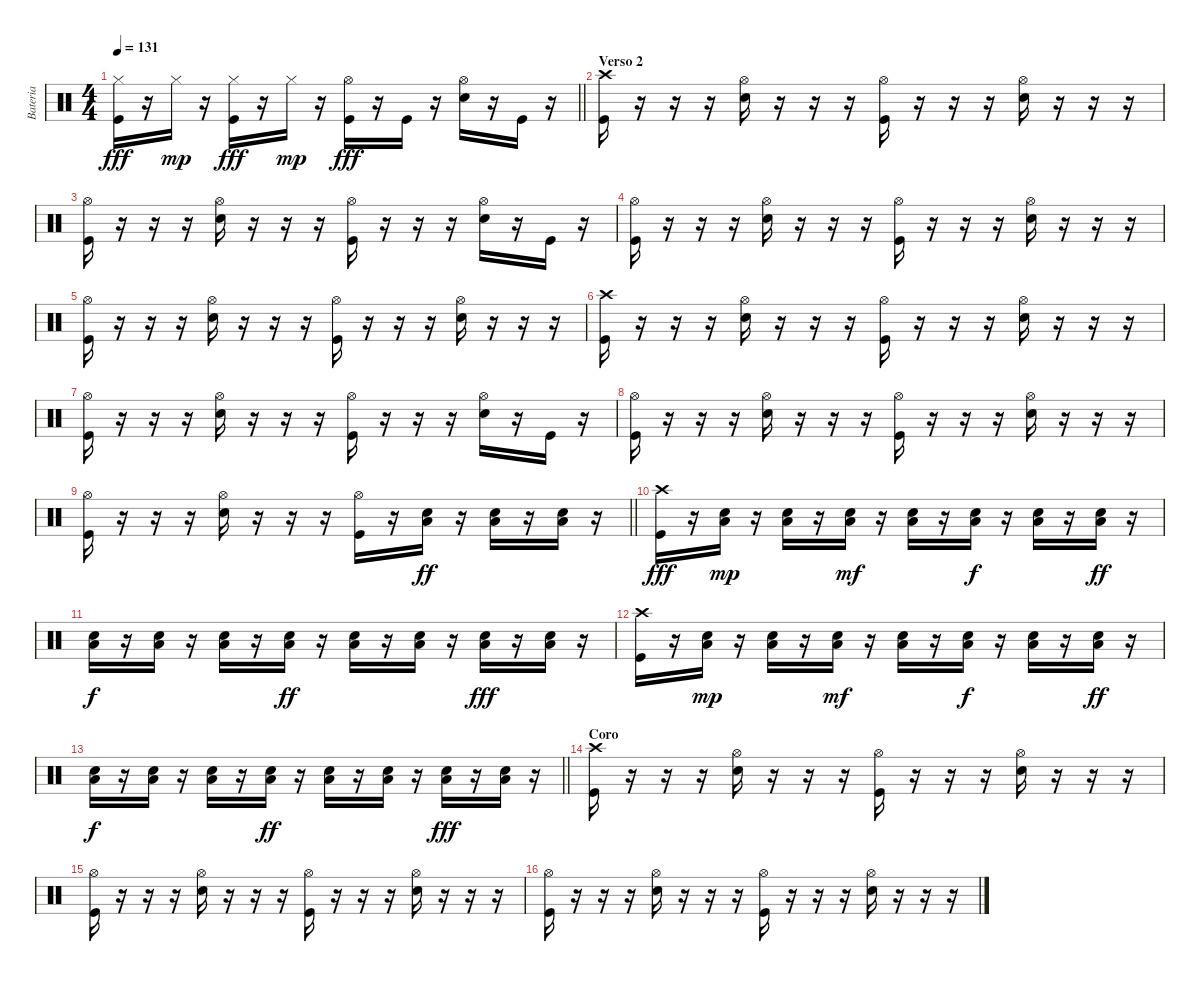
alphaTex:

\track ("Bateria" "Bateria") {instrument percussion}
\staff {score}
\articulation defaults
\ts (4 4)
\tempo 131
\clef neutral
\barLineRight lightlight
\ks c
("Hi-Hat (closed)" "Kick (hit)").16{dy fff} r.16 "Hi-Hat (closed)".16{dy mp} r.16 ("Hi-Hat (closed)" "Kick (hit)").16{dy fff} r.16 "Hi-Hat (closed)".16{dy mp} r.16 ("Hi-Hat (open)" "Kick (hit)").16{dy fff} r.16 "Kick (hit)".16 r.16 ("Hi-Hat (open)" "Electric Snare (hit)").16 r.16 "Kick (hit)".16 r.16 |
\section ("" "Verso 2")
("Crash high (hit)" "Kick (hit)").16 r.16 r.16 r.16 ("Hi-Hat (open)" "Electric Snare (hit)").16 r.16 r.16 r.16 ("Hi-Hat (open)" "Kick (hit)").16 r.16 r.16 r.16 ("Hi-Hat (open)" "Electric Snare (hit)").16 r.16 r.16 r.16 |
("Hi-Hat (open)" "Kick (hit)").16 r.16 r.16 r.16 ("Hi-Hat (open)" "Electric Snare (hit)").16 r.16 r.16 r.16 ("Hi-Hat (open)" "Kick (hit)").16 r.16 r.16 r.16 ("Hi-Hat (open)" "Electric Snare (hit)").16 r.16 "Kick (hit)".16 r.16 |
("Hi-Hat (open)" "Kick (hit)").16 r.16 r.16 r.16 ("Hi-Hat (open)" "Electric Snare (hit)").16 r.16 r.16 r.16 ("Hi-Hat (open)" "Kick (hit)").16 r.16 r.16 r.16 ("Hi-Hat (open)" "Electric Snare (hit)").16 r.16 r.16 r.16 |
("Hi-Hat (open)" "Kick (hit)").16 r.16 r.16 r.16 ("Hi-Hat (open)" "Electric Snare (hit)").16 r.16 r.16 r.16 ("Hi-Hat (open)" "Kick (hit)").16 r.16 r.16 r.16 ("Hi-Hat (open)" "Electric Snare (hit)").16 r.16 r.16 r.16 |
("Crash high (hit)" "Kick (hit)").16 r.16 r.16 r.16 ("Hi-Hat (open)" "Electric Snare (hit)").16 r.16 r.16 r.16 ("Hi-Hat (open)" "Kick (hit)").16 r.16 r.16 r.16 ("Hi-Hat (open)" "Electric Snare (hit)").16 r.16 r.16 r.16 |
("Hi-Hat (open)" "Kick (hit)").16 r.16 r.16 r.16 ("Hi-Hat (open)" "Electric Snare (hit)").16 r.16 r.16 r.16 ("Hi-Hat (open)" "Kick (hit)").16 r.16 r.16 r.16 ("Hi-Hat (open)" "Electric Snare (hit)").16 r.16 "Kick (hit)".16 r.16 |
("Hi-Hat (open)" "Kick (hit)").16 r.16 r.16 r.16 ("Hi-Hat (open)" "Electric Snare (hit)").16 r.16 r.16 r.16 ("Hi-Hat (open)" "Kick (hit)").16 r.16 r.16 r.16 ("Hi-Hat (open)" "Electric Snare (hit)").16 r.16 r.16 r.16 |
\barLineRight lightlight
("Hi-Hat (open)" "Kick (hit)").16 r.16 r.16 r.16 ("Hi-Hat (open)" "Electric Snare (hit)").16 r.16 r.16 r.16 ("Hi-Hat (open)" "Kick (hit)").16 r.16 ("Electric Snare (hit)" "Low Floor Tom (hit)").16{dy ff} r.16 ("Electric Snare (hit)" "Low Floor Tom (hit)").16 r.16 ("Electric Snare (hit)" "Low Floor Tom (hit)").16 r.16 |
("Crash high (hit)" "Kick (hit)").16{dy fff} r.16 ("Electric Snare (hit)" "Low Floor Tom (hit)").16{dy mp} r.16 ("Electric Snare (hit)" "Low Floor Tom (hit)").16 r.16 ("Electric Snare (hit)" "Low Floor Tom (hit)").16{dy mf} r.16 ("Electric Snare (hit)" "Low Floor Tom (hit)").16 r.16 ("Electric Snare (hit)" "Low Floor Tom (hit)").16{dy f} r.16 ("Electric Snare (hit)" "Low Floor Tom (hit)").16 r.16 ("Electric Snare (hit)" "Low Floor Tom (hit)").16{dy ff} r.16 |
("Electric Snare (hit)" "Low Floor Tom (hit)").16{dy f} r.16 ("Electric Snare (hit)" "Low Floor Tom (hit)").16 r.16 ("Electric Snare (hit)" "Low Floor Tom (hit)").16 r.16 ("Electric Snare (hit)" "Low Floor Tom (hit)").16{dy ff} r.16 ("Electric Snare (hit)" "Low Floor Tom (hit)").16 r.16 ("Electric Snare (hit)" "Low Floor Tom (hit)").16 r.16 ("Electric Snare (hit)" "Low Floor Tom (hit)").16{dy fff} r.16 ("Electric Snare (hit)" "Low Floor Tom (hit)").16 r.16 |
("Crash high (hit)" "Kick (hit)").16 r.16 ("Electric Snare (hit)" "Low Floor Tom (hit)").16{dy mp} r.16 ("Electric Snare (hit)" "Low Floor Tom (hit)").16 r.16 ("Electric Snare (hit)" "Low Floor Tom (hit)").16{dy mf} r.16 ("Electric Snare (hit)" "Low Floor Tom (hit)").16 r.16 ("Electric Snare (hit)" "Low Floor Tom (hit)").16{dy f} r.16 ("Electric Snare (hit)" "Low Floor Tom (hit)").16 r.16 ("Electric Snare (hit)" "Low Floor Tom (hit)").16{dy ff} r.16 |
\barLineRight lightlight
("Electric Snare (hit)" "Low Floor Tom (hit)").16{dy f} r.16 ("Electric Snare (hit)" "Low Floor Tom (hit)").16 r.16 ("Electric Snare (hit)" "Low Floor Tom (hit)").16 r.16 ("Electric Snare (hit)" "Low Floor Tom (hit)").16{dy ff} r.16 ("Electric Snare (hit)" "Low Floor Tom (hit)").16 r.16 ("Electric Snare (hit)" "Low Floor Tom (hit)").16 r.16 ("Electric Snare (hit)" "Low Floor Tom (hit)").16{dy fff} r.16 ("Electric Snare (hit)" "Low Floor Tom (hit)").16 r.16 |
\section ("" "Coro")
("Crash high (hit)" "Kick (hit)").16 r.16 r.16 r.16 ("Hi-Hat (open)" "Electric Snare (hit)").16 r.16 r.16 r.16 ("Hi-Hat (open)" "Kick (hit)").16 r.16 r.16 r.16 ("Hi-Hat (open)" "Electric Snare (hit)").16 r.16 r.16 r.16 |
("Hi-Hat (open)" "Kick (hit)").16 r.16 r.16 r.16 ("Hi-Hat (open)" "Electric Snare (hit)").16 r.16 r.16 r.16 ("Hi-Hat (open)" "Kick (hit)").16 r.16 r.16 r.16 ("Hi-Hat (open)" "Electric Snare (hit)").16 r.16 r.16 r.16 |
("Hi-Hat (open)" "Kick (hit)").16 r.16 r.16 r.16 ("Hi-Hat (open)" "Electric Snare (hit)").16 r.16 r.16 r.16 ("Hi-Hat (open)" "Kick (hit)").16 r.16 r.16 r.16 ("Hi-Hat (open)" "Electric Snare (hit)").16 r.16 r.16 r.16
